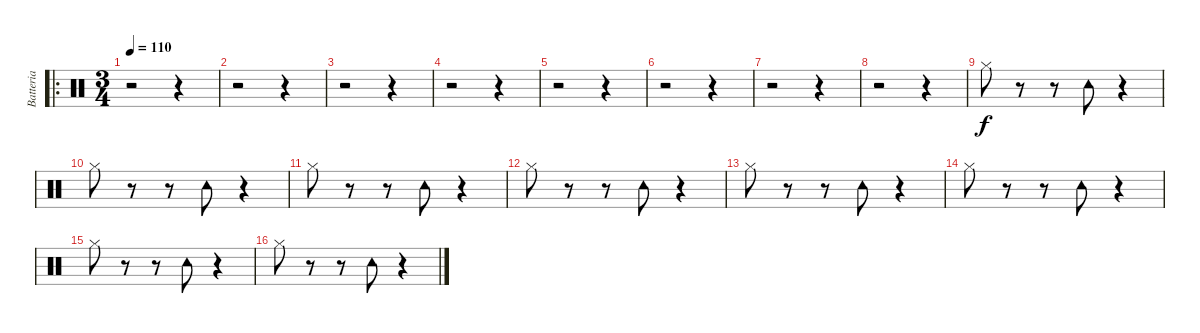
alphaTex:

\track ("Batteria" "Batteria") {instrument percussion}
\staff {score}
\articulation defaults
\ro
\ts (3 4)
\tempo 110
\clef neutral
\ks c
r.2{dy f} r.4 |
r.2 r.4 |
r.2 r.4 |
r.2 r.4 |
r.2 r.4 |
r.2 r.4 |
r.2 r.4 |
r.2 r.4 |
"Hi-Hat (closed)".8 r.8 r.8 "Tambourine (hit)".8 r.4 |
"Hi-Hat (closed)".8 r.8 r.8 "Tambourine (hit)".8 r.4 |
"Hi-Hat (closed)".8 r.8 r.8 "Tambourine (hit)".8 r.4 |
"Hi-Hat (closed)".8 r.8 r.8 "Tambourine (hit)".8 r.4 |
"Hi-Hat (closed)".8 r.8 r.8 "Tambourine (hit)".8 r.4 |
"Hi-Hat (closed)".8 r.8 r.8 "Tambourine (hit)".8 r.4 |
"Hi-Hat (closed)".8 r.8 r.8 "Tambourine (hit)".8 r.4 |
"Hi-Hat (closed)".8 r.8 r.8 "Tambourine (hit)".8 r.4
